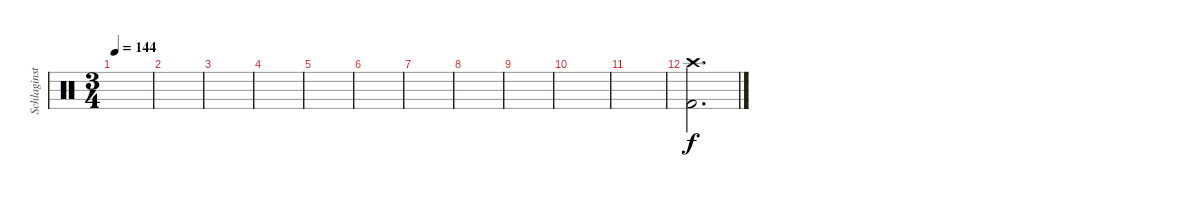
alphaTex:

\track ("Schlaginstrumente - Auswahl" "Schlaginst") {instrument percussion}
\staff {score}
\articulation defaults
\ts (3 4)
\tempo 144
\clef neutral
\ks c
|
|
|
|
|
|
|
|
|
|
|
("Crash high (hit)" "Kick (hit) 2").2{d}
